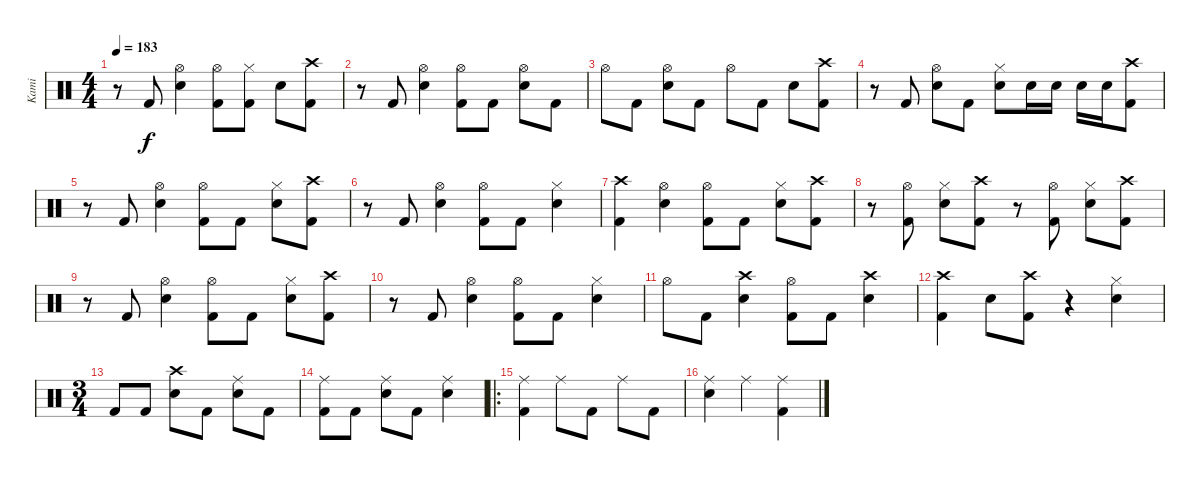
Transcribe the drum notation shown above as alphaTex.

\track ("Kami" "Kami") {instrument percussion}
\staff {score}
\articulation defaults
\ts (4 4)
\tempo 183
\clef neutral
\ks c
r.8{dy f} "Kick (hit) 2".8 ("Hi-Hat (open)" "Electric Snare (hit)").4 ("Hi-Hat (open)" "Kick (hit) 2").8 ("Hi-Hat (closed)" "Kick (hit) 2").8 "Electric Snare (hit)".8 ("Crash high (hit)" "Kick (hit) 2").8 |
r.8 "Kick (hit) 2".8 ("Hi-Hat (open)" "Electric Snare (hit)").4 ("Hi-Hat (open)" "Kick (hit) 2").8 "Kick (hit) 2".8 ("Hi-Hat (open)" "Electric Snare (hit)").8 "Kick (hit) 2".8 |
"Hi-Hat (open)".8 "Kick (hit) 2".8 ("Hi-Hat (open)" "Electric Snare (hit)").8 "Kick (hit) 2".8 "Hi-Hat (open)".8 "Kick (hit) 2".8 "Electric Snare (hit)".8 ("Crash high (hit)" "Kick (hit) 2").8 |
r.8 "Kick (hit) 2".8 ("Hi-Hat (open)" "Electric Snare (hit)").8 "Kick (hit) 2".8 ("Hi-Hat (closed)" "Electric Snare (hit)").8 "Electric Snare (hit)".16 "Electric Snare (hit)".16 "Electric Snare (hit)".16 "Electric Snare (hit)".16 ("Crash high (hit)" "Kick (hit) 2").8 |
r.8 "Kick (hit) 2".8 ("Hi-Hat (open)" "Electric Snare (hit)").4 ("Hi-Hat (open)" "Kick (hit) 2").8 "Kick (hit) 2".8 ("Hi-Hat (closed)" "Electric Snare (hit)").8 ("Crash high (hit)" "Kick (hit) 2").8 |
r.8 "Kick (hit) 2".8 ("Hi-Hat (open)" "Electric Snare (hit)").4 ("Hi-Hat (open)" "Kick (hit) 2").8 "Kick (hit) 2".8 ("Hi-Hat (closed)" "Electric Snare (hit)").4 |
("Crash high (hit)" "Kick (hit) 2").4 ("Hi-Hat (open)" "Electric Snare (hit)").4 ("Hi-Hat (open)" "Kick (hit) 2").8 "Kick (hit) 2".8 ("Hi-Hat (closed)" "Electric Snare (hit)").8 ("Crash high (hit)" "Kick (hit) 2").8 |
r.8 ("Hi-Hat (open)" "Kick (hit) 2").8 ("Hi-Hat (closed)" "Electric Snare (hit)").8 ("Crash high (hit)" "Kick (hit) 2").8 r.8 ("Hi-Hat (open)" "Kick (hit) 2").8 ("Hi-Hat (closed)" "Electric Snare (hit)").8 ("Crash high (hit)" "Kick (hit) 2").8 |
r.8 "Kick (hit) 2".8 ("Hi-Hat (open)" "Electric Snare (hit)").4 ("Hi-Hat (open)" "Kick (hit) 2").8 "Kick (hit) 2".8 ("Hi-Hat (closed)" "Electric Snare (hit)").8 ("Crash high (hit)" "Kick (hit) 2").8 |
r.8 "Kick (hit) 2".8 ("Hi-Hat (open)" "Electric Snare (hit)").4 ("Hi-Hat (open)" "Kick (hit) 2").8 "Kick (hit) 2".8 ("Hi-Hat (closed)" "Electric Snare (hit)").4 |
"Hi-Hat (open)".8 "Kick (hit) 2".8 ("Crash high (hit)" "Electric Snare (hit)").4 ("Hi-Hat (open)" "Kick (hit) 2").8 "Kick (hit) 2".8 ("Crash high (hit)" "Electric Snare (hit)").4 |
("Crash high (hit)" "Kick (hit) 2").4 "Electric Snare (hit)".8 ("Crash high (hit)" "Kick (hit) 2").8 r.4 ("Hi-Hat (closed)" "Electric Snare (hit)").4 |
\ts (3 4)
"Kick (hit) 2".8 "Kick (hit) 2".8 ("Electric Snare (hit)" "Crash high (hit)").8 "Kick (hit) 2".8 ("Electric Snare (hit)" "Ride (middle)").8 "Kick (hit) 2".8 |
("Kick (hit) 2" "Ride (middle)").8 "Kick (hit) 2".8 ("Electric Snare (hit)" "Ride (middle)").8 "Kick (hit) 2".8 ("Electric Snare (hit)" "Ride (middle)").4 |
\ro
("Ride (middle)" "Kick (hit) 2").4 "Ride (middle)".8 "Kick (hit) 2".8 "Ride (middle)".8 "Kick (hit) 2".8 |
("Ride (middle)" "Electric Snare (hit)").4 "Ride (middle)".4 ("Ride (middle)" "Kick (hit) 2").4
